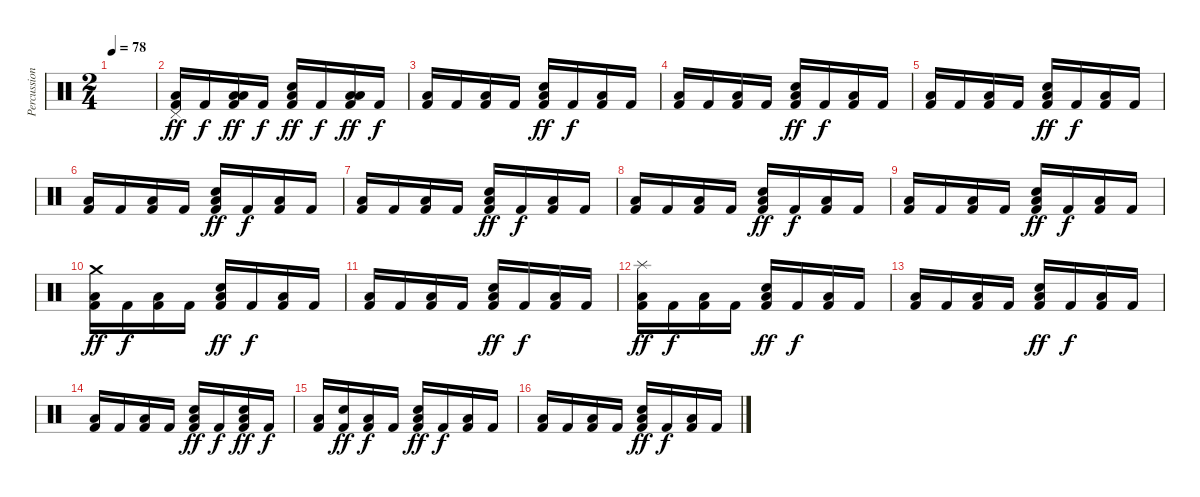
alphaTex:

\track ("Percussion" "Percussion") {instrument percussion}
\staff {score}
\articulation defaults
\ts (2 4)
\tempo 78
\clef neutral
\ks c
|
("Kick (hit) 2" "Pedal Hi-Hat (hit)" "Low Tom (hit)").16{dy ff} "Kick (hit) 2".16{dy f} ("Kick (hit) 2" "Low Tom (hit)" "Low Tom (hit)").16{dy ff} "Kick (hit) 2".16{dy f} ("Kick (hit) 2" "Snare (hit) 2" "Low Tom (hit)").16{dy ff} "Kick (hit) 2".16{dy f} ("Kick (hit) 2" "Low Tom (hit)" "Low Tom (hit)").16{dy ff} "Kick (hit) 2".16{dy f} |
("Kick (hit) 2" "Low Tom (hit)").16 "Kick (hit) 2".16 ("Kick (hit) 2" "Low Tom (hit)").16 "Kick (hit) 2".16 ("Kick (hit) 2" "Snare (hit) 2" "Low Tom (hit)").16{dy ff} "Kick (hit) 2".16{dy f} ("Kick (hit) 2" "Low Tom (hit)").16 "Kick (hit) 2".16 |
("Kick (hit) 2" "Low Tom (hit)").16 "Kick (hit) 2".16 ("Kick (hit) 2" "Low Tom (hit)").16 "Kick (hit) 2".16 ("Kick (hit) 2" "Snare (hit) 2" "Low Tom (hit)").16{dy ff} "Kick (hit) 2".16{dy f} ("Kick (hit) 2" "Low Tom (hit)").16 "Kick (hit) 2".16 |
("Kick (hit) 2" "Low Tom (hit)").16 "Kick (hit) 2".16 ("Kick (hit) 2" "Low Tom (hit)").16 "Kick (hit) 2".16 ("Kick (hit) 2" "Snare (hit) 2" "Low Tom (hit)").16{dy ff} "Kick (hit) 2".16{dy f} ("Kick (hit) 2" "Low Tom (hit)").16 "Kick (hit) 2".16 |
("Kick (hit) 2" "Low Tom (hit)").16 "Kick (hit) 2".16 ("Kick (hit) 2" "Low Tom (hit)").16 "Kick (hit) 2".16 ("Kick (hit) 2" "Snare (hit) 2" "Low Tom (hit)").16{dy ff} "Kick (hit) 2".16{dy f} ("Kick (hit) 2" "Low Tom (hit)").16 "Kick (hit) 2".16 |
("Kick (hit) 2" "Low Tom (hit)").16 "Kick (hit) 2".16 ("Kick (hit) 2" "Low Tom (hit)").16 "Kick (hit) 2".16 ("Kick (hit) 2" "Snare (hit) 2" "Low Tom (hit)").16{dy ff} "Kick (hit) 2".16{dy f} ("Kick (hit) 2" "Low Tom (hit)").16 "Kick (hit) 2".16 |
("Kick (hit) 2" "Low Tom (hit)").16 "Kick (hit) 2".16 ("Kick (hit) 2" "Low Tom (hit)").16 "Kick (hit) 2".16 ("Kick (hit) 2" "Snare (hit) 2" "Low Tom (hit)").16{dy ff} "Kick (hit) 2".16{dy f} ("Kick (hit) 2" "Low Tom (hit)").16 "Kick (hit) 2".16 |
("Kick (hit) 2" "Low Tom (hit)").16 "Kick (hit) 2".16 ("Kick (hit) 2" "Low Tom (hit)").16 "Kick (hit) 2".16 ("Kick (hit) 2" "Snare (hit) 2" "Low Tom (hit)").16{dy ff} "Kick (hit) 2".16{dy f} ("Kick (hit) 2" "Low Tom (hit)").16 "Kick (hit) 2".16 |
("Kick (hit) 2" "Crash medium (hit)" "Low Tom (hit)").16{dy ff} "Kick (hit) 2".16{dy f} ("Kick (hit) 2" "Low Tom (hit)").16 "Kick (hit) 2".16 ("Kick (hit) 2" "Snare (hit) 2" "Low Tom (hit)").16{dy ff} "Kick (hit) 2".16{dy f} ("Kick (hit) 2" "Low Tom (hit)").16 "Kick (hit) 2".16 |
("Kick (hit) 2" "Low Tom (hit)").16 "Kick (hit) 2".16 ("Kick (hit) 2" "Low Tom (hit)").16 "Kick (hit) 2".16 ("Kick (hit) 2" "Snare (hit) 2" "Low Tom (hit)").16{dy ff} "Kick (hit) 2".16{dy f} ("Kick (hit) 2" "Low Tom (hit)").16 "Kick (hit) 2".16 |
("Kick (hit) 2" "Splash (hit)" "Low Tom (hit)").16{dy ff} "Kick (hit) 2".16{dy f} ("Kick (hit) 2" "Low Tom (hit)").16 "Kick (hit) 2".16 ("Kick (hit) 2" "Snare (hit) 2" "Low Tom (hit)").16{dy ff} "Kick (hit) 2".16{dy f} ("Kick (hit) 2" "Low Tom (hit)").16 "Kick (hit) 2".16 |
("Kick (hit) 2" "Low Tom (hit)").16 "Kick (hit) 2".16 ("Kick (hit) 2" "Low Tom (hit)").16 "Kick (hit) 2".16 ("Kick (hit) 2" "Snare (hit) 2" "Low Tom (hit)").16{dy ff} "Kick (hit) 2".16{dy f} ("Kick (hit) 2" "Low Tom (hit)").16 "Kick (hit) 2".16 |
("Kick (hit) 2" "Low Tom (hit)").16 "Kick (hit) 2".16 ("Kick (hit) 2" "Low Tom (hit)").16 "Kick (hit) 2".16 ("Kick (hit) 2" "Snare (hit) 2" "Low Tom (hit)").16{dy ff} "Kick (hit) 2".16{dy f} ("Kick (hit) 2" "Snare (hit) 2" "Low Tom (hit)").16{dy ff} "Kick (hit) 2".16{dy f} |
("Kick (hit) 2" "Low Tom (hit)").16 ("Kick (hit) 2" "Snare (hit) 2").16{dy ff} ("Kick (hit) 2" "Low Tom (hit)").16{dy f} "Kick (hit) 2".16 ("Kick (hit) 2" "Snare (hit) 2" "Low Tom (hit)").16{dy ff} "Kick (hit) 2".16{dy f} ("Kick (hit) 2" "Low Tom (hit)").16 "Kick (hit) 2".16 |
("Kick (hit) 2" "Low Tom (hit)").16 "Kick (hit) 2".16 ("Kick (hit) 2" "Low Tom (hit)").16 "Kick (hit) 2".16 ("Kick (hit) 2" "Snare (hit) 2" "Low Tom (hit)").16{dy ff} "Kick (hit) 2".16{dy f} ("Kick (hit) 2" "Low Tom (hit)").16 "Kick (hit) 2".16
